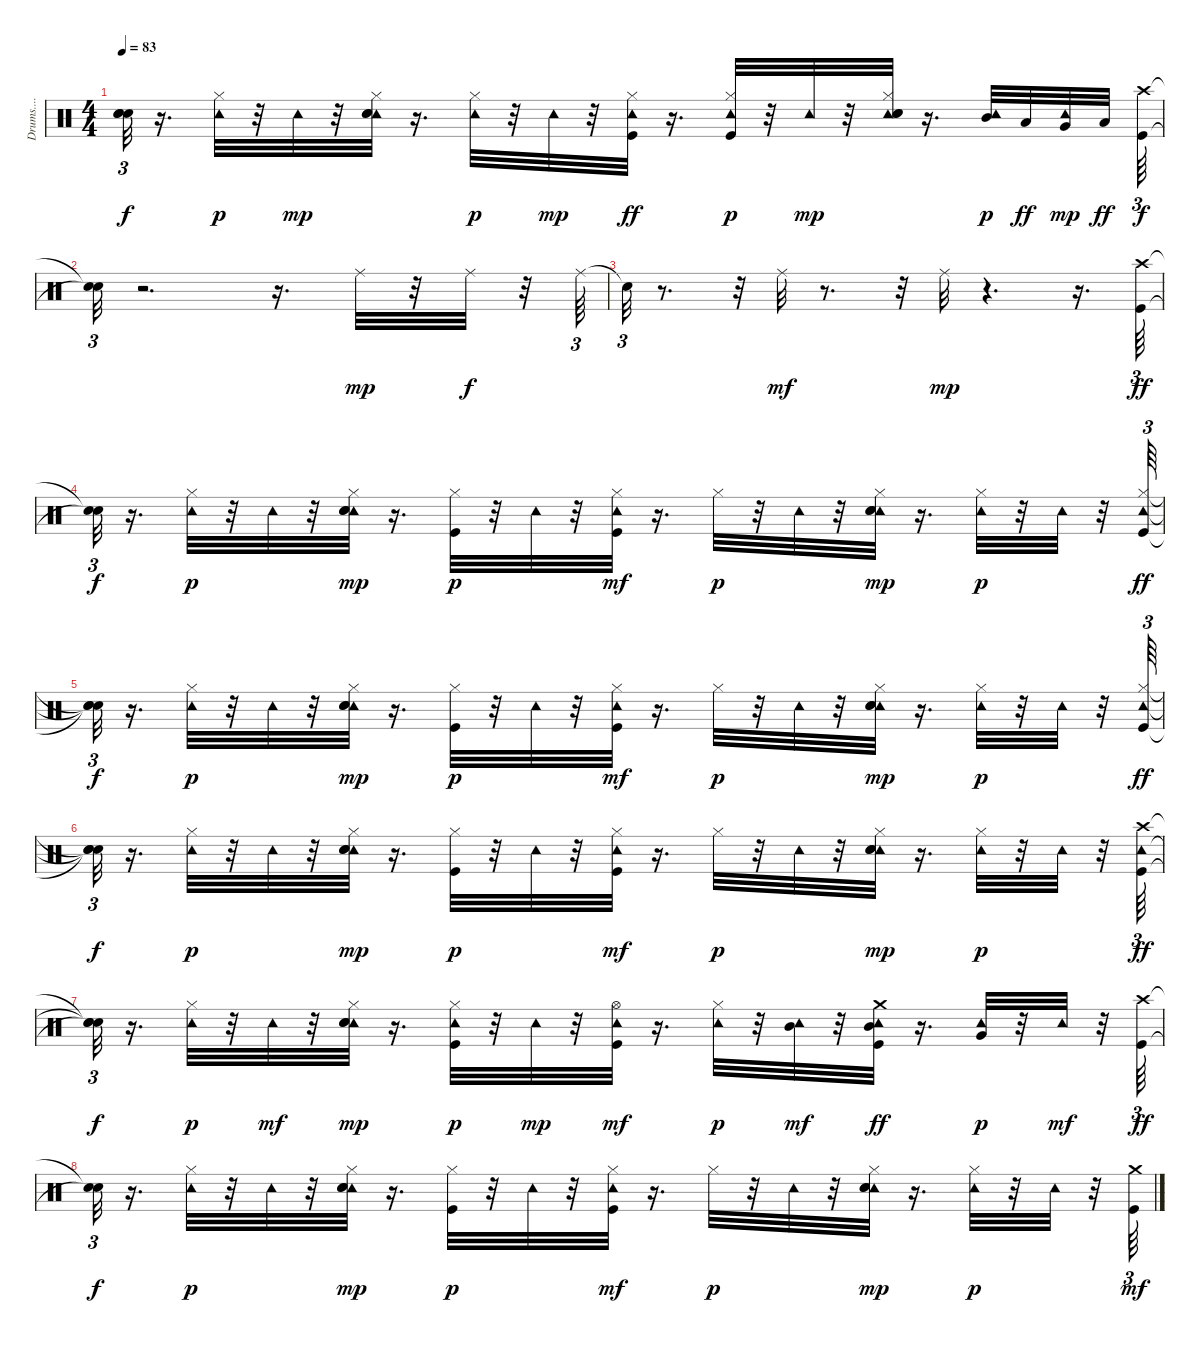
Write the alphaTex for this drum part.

\track ("Drums....           " "Drums.... ") {instrument percussion}
\staff {score}
\articulation defaults
\ts (4 4)
\tempo 83
\clef neutral
\ks c
("Snare (hit)"{t} "Snare (hit)"{t} "Snare (hit)"{t}).32{tu (3 2) dy f} r.16{d} ("Tambourine (hit)" "Hi-Hat (closed)").32{dy p} r.32 "Tambourine (hit)".32{dy mp} r.32 ("Tambourine (hit)" "Snare (hit) 2" "Hi-Hat (closed)" "Electric Snare (hit)").32 r.16{d} ("Tambourine (hit)" "Hi-Hat (closed)").32{dy p} r.32 "Tambourine (hit)".32{dy mp} r.32 ("Kick (hit)" "Tambourine (hit)" "Hi-Hat (closed)").32{dy ff} r.16{d} ("Kick (hit)" "Tambourine (hit)" "Hi-Hat (closed)").32{dy p} r.32 "Tambourine (hit)".32{dy mp} r.32 ("Tambourine (hit)" "Snare (hit) 2" "Hi-Hat (closed)" "Electric Snare (hit)").32 r.16{d} ("Tambourine (hit)" "Mid Tom (hit)").32{dy p} "Low Tom (hit)".32{dy ff} ("Tambourine (hit)" "Very Low Tom (hit)").32{dy mp} "Low Floor Tom (hit)".32{dy ff beam splitsecondary} ("Kick (hit)" "Crash high (hit)").64{tu (3 2) dy f} |
("Snare (hit)"{t} "Snare (hit)"{t}).32{tu (3 2)} r.2{d} r.16{d} "Ride (middle)".32{dy mp} r.32 "Ride (middle)".32{dy f} r.32 "Ride (middle)".64{tu (3 2)} |
"Snare (hit)"{t}.32{tu (3 2)} r.8{d} r.32 "Ride (middle)".32{dy mf} r.8{d} r.32 "Ride (middle)".32{dy mp} r.4{d} r.16{d} ("Kick (hit)" "Crash high (hit)").64{tu (3 2) dy ff} |
("Snare (hit)"{t} "Snare (hit)"{t}).32{tu (3 2) dy f} r.16{d} ("Tambourine (hit)" "Hi-Hat (closed)").32{dy p} r.32 "Tambourine (hit)".32 r.32 ("Tambourine (hit)" "Snare (hit) 2" "Hi-Hat (closed)" "Electric Snare (hit)").32{dy mp} r.16{d} ("Kick (hit)" "Hi-Hat (closed)").32{dy p} r.32 "Tambourine (hit)".32 r.32 ("Kick (hit)" "Tambourine (hit)" "Hi-Hat (closed)").32{dy mf} r.16{d} "Hi-Hat (closed)".32{dy p} r.32 "Tambourine (hit)".32 r.32 ("Tambourine (hit)" "Snare (hit) 2" "Hi-Hat (closed)" "Electric Snare (hit)").32{dy mp} r.16{d} ("Tambourine (hit)" "Hi-Hat (closed)").32{dy p} r.32 "Tambourine (hit)".32 r.32 ("Kick (hit)" "Tambourine (hit)" "Hi-Hat (closed)").64{tu (3 2) dy ff} |
("Snare (hit)"{t} "Snare (hit)"{t} "Snare (hit)"{t}).32{tu (3 2) dy f} r.16{d} ("Tambourine (hit)" "Hi-Hat (closed)").32{dy p} r.32 "Tambourine (hit)".32 r.32 ("Tambourine (hit)" "Snare (hit) 2" "Hi-Hat (closed)" "Electric Snare (hit)").32{dy mp} r.16{d} ("Kick (hit)" "Hi-Hat (closed)").32{dy p} r.32 "Tambourine (hit)".32 r.32 ("Kick (hit)" "Tambourine (hit)" "Hi-Hat (closed)").32{dy mf} r.16{d} "Hi-Hat (closed)".32{dy p} r.32 "Tambourine (hit)".32 r.32 ("Tambourine (hit)" "Snare (hit) 2" "Hi-Hat (closed)" "Electric Snare (hit)").32{dy mp} r.16{d} ("Tambourine (hit)" "Hi-Hat (closed)").32{dy p} r.32 "Tambourine (hit)".32 r.32 ("Kick (hit)" "Tambourine (hit)" "Hi-Hat (closed)").64{tu (3 2) dy ff} |
("Snare (hit)"{t} "Snare (hit)"{t} "Snare (hit)"{t}).32{tu (3 2) dy f} r.16{d} ("Tambourine (hit)" "Hi-Hat (closed)").32{dy p} r.32 "Tambourine (hit)".32 r.32 ("Tambourine (hit)" "Snare (hit) 2" "Hi-Hat (closed)" "Electric Snare (hit)").32{dy mp} r.16{d} ("Kick (hit)" "Hi-Hat (closed)").32{dy p} r.32 "Tambourine (hit)".32 r.32 ("Kick (hit)" "Tambourine (hit)" "Hi-Hat (closed)").32{dy mf} r.16{d} "Hi-Hat (closed)".32{dy p} r.32 "Tambourine (hit)".32 r.32 ("Tambourine (hit)" "Snare (hit) 2" "Hi-Hat (closed)" "Electric Snare (hit)").32{dy mp} r.16{d} ("Tambourine (hit)" "Hi-Hat (closed)").32{dy p} r.32 "Tambourine (hit)".32 r.32 ("Kick (hit)" "Tambourine (hit)" "Crash high (hit)").64{tu (3 2) dy ff} |
("Snare (hit)"{t} "Snare (hit)"{t} "Snare (hit)"{t}).32{tu (3 2) dy f} r.16{d} ("Tambourine (hit)" "Hi-Hat (closed)").32{dy p} r.32 "Tambourine (hit)".32{dy mf} r.32 ("Tambourine (hit)" "Snare (hit) 2" "Hi-Hat (closed)" "Electric Snare (hit)").32{dy mp} r.16{d} ("Kick (hit)" "Tambourine (hit)" "Hi-Hat (closed)").32{dy p} r.32 "Tambourine (hit)".32{dy mp} r.32 ("Kick (hit)" "Tambourine (hit)" "Hi-Hat (open)").32{dy mf} r.16{d} ("Tambourine (hit)" "Hi-Hat (closed)").32{dy p} r.32 ("Tambourine (hit)" "Mid Tom (hit)").32{dy mf} r.32 ("Kick (hit)" "Tambourine (hit)" "Crash medium (hit)" "Mid Tom (hit)").32{dy ff} r.16{d} ("Tambourine (hit)" "Very Low Tom (hit)").32{dy p} r.32 "Tambourine (hit)".32{dy mf} r.32 ("Kick (hit)" "Crash high (hit)").64{tu (3 2) dy ff} |
("Snare (hit)"{t} "Snare (hit)"{t}).32{tu (3 2) dy f} r.16{d} ("Tambourine (hit)" "Hi-Hat (closed)").32{dy p} r.32 "Tambourine (hit)".32 r.32 ("Tambourine (hit)" "Snare (hit) 2" "Hi-Hat (closed)" "Electric Snare (hit)").32{dy mp} r.16{d} ("Kick (hit)" "Hi-Hat (closed)").32{dy p} r.32 "Tambourine (hit)".32 r.32 ("Kick (hit)" "Tambourine (hit)" "Hi-Hat (closed)").32{dy mf} r.16{d} "Hi-Hat (closed)".32{dy p} r.32 "Tambourine (hit)".32 r.32 ("Tambourine (hit)" "Snare (hit) 2" "Hi-Hat (closed)" "Electric Snare (hit)").32{dy mp} r.16{d} ("Tambourine (hit)" "Hi-Hat (closed)").32{dy p} r.32 "Tambourine (hit)".32 r.32 ("Kick (hit)" "Crash medium (hit)").64{tu (3 2) dy mf}
